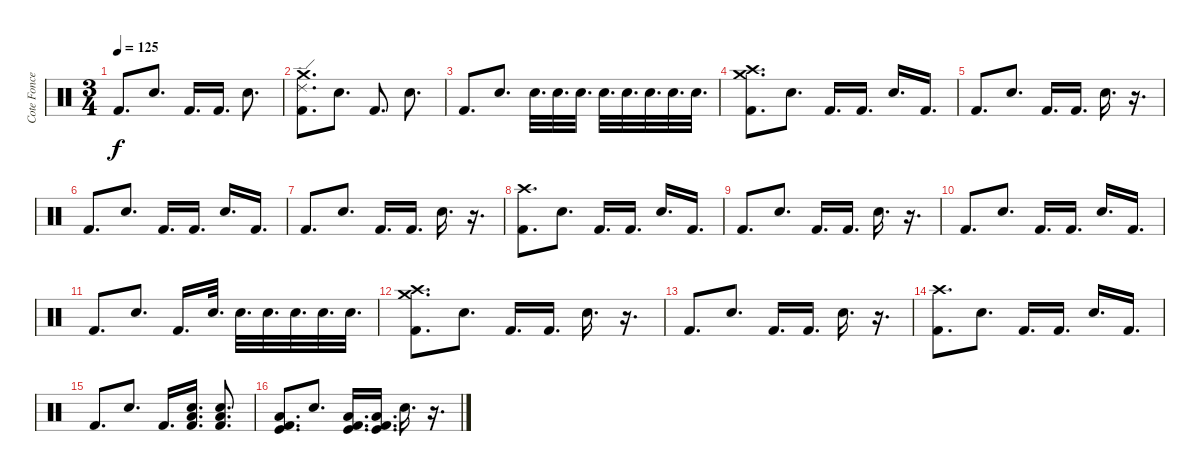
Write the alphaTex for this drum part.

\track ("Cote Foncea" "Cote Fonce") {instrument percussion}
\staff {score}
\articulation defaults
\ts (3 4)
\tempo 125
\clef neutral
\ks c "Kick (hit) 2".8{d dy f} "Snare (hit) 2".8{d} "Kick (hit) 2".16{d} "Kick (hit) 2".16{d} "Snare (hit) 2".8{d}
|
("Ride (edge) 2" "Crash medium (hit)" "Kick (hit) 2").8{d} "Snare (hit) 2".8{d} "Kick (hit) 2".8{d} "Snare (hit) 2".8{d} |
"Kick (hit) 2".8{d} "Snare (hit) 2".8{d} "Snare (hit) 2".32{d} "Snare (hit) 2".32{d} "Snare (hit) 2".32{d} "Snare (hit) 2".32{d} "Snare (hit) 2".32{d} "Snare (hit) 2".32{d} "Snare (hit) 2".32{d} "Snare (hit) 2".32{d} |
("Crash high (hit)" "Crash medium (hit)" "Kick (hit) 2").8{d} "Snare (hit) 2".8{d} "Kick (hit) 2".16{d} "Kick (hit) 2".16{d} "Snare (hit) 2".16{d} "Kick (hit) 2".16{d} |
"Kick (hit) 2".8{d} "Snare (hit) 2".8{d} "Kick (hit) 2".16{d} "Kick (hit) 2".16{d} "Snare (hit) 2".16{d} r.16{d} |
"Kick (hit) 2".8{d} "Snare (hit) 2".8{d} "Kick (hit) 2".16{d} "Kick (hit) 2".16{d} "Snare (hit) 2".16{d} "Kick (hit) 2".16{d} |
"Kick (hit) 2".8{d} "Snare (hit) 2".8{d} "Kick (hit) 2".16{d} "Kick (hit) 2".16{d} "Snare (hit) 2".16{d} r.16{d} |
("Crash high (hit)" "Kick (hit) 2").8{d} "Snare (hit) 2".8{d} "Kick (hit) 2".16{d} "Kick (hit) 2".16{d} "Snare (hit) 2".16{d} "Kick (hit) 2".16{d} |
"Kick (hit) 2".8{d} "Snare (hit) 2".8{d} "Kick (hit) 2".16{d} "Kick (hit) 2".16{d} "Snare (hit) 2".16{d} r.16{d} |
"Kick (hit) 2".8{d} "Snare (hit) 2".8{d} "Kick (hit) 2".16{d} "Kick (hit) 2".16{d} "Snare (hit) 2".16{d} "Kick (hit) 2".16{d} |
"Kick (hit) 2".8{d volume 16} "Snare (hit) 2".8{d volume 10} "Kick (hit) 2".16{d volume 16} "Snare (hit) 2".32{d} "Snare (hit) 2".32{d} "Snare (hit) 2".32{d} "Snare (hit) 2".32{d} "Snare (hit) 2".32{d} "Snare (hit) 2".32{d} |
("Crash high (hit)" "Crash medium (hit)" "Kick (hit) 2").8{d} "Snare (hit) 2".8{d} "Kick (hit) 2".16{d} "Kick (hit) 2".16{d} "Snare (hit) 2".16{d} r.16{d} |
"Kick (hit) 2".8{d} "Snare (hit) 2".8{d} "Kick (hit) 2".16{d} "Kick (hit) 2".16{d} "Snare (hit) 2".16{d} r.16{d} |
("Crash high (hit)" "Kick (hit) 2").8{d} "Snare (hit) 2".8{d} "Kick (hit) 2".16{d} "Kick (hit) 2".16{d} "Snare (hit) 2".16{d} "Kick (hit) 2".16{d} |
"Kick (hit) 2".8{d} "Snare (hit) 2".8{d} "Kick (hit) 2".16{d} ("Kick (hit) 2" "Snare (hit) 2" "Low Tom (hit)").16{d} ("Kick (hit) 2" "Snare (hit) 2" "Low Tom (hit)").8{d} |
("Low Tom (hit)" "Kick (hit) 2" "Kick (hit)").8{d} "Snare (hit) 2".8{d} ("Low Tom (hit)" "Kick (hit) 2" "Kick (hit)").16{d} ("Low Tom (hit)" "Kick (hit) 2" "Kick (hit)").16{d} "Snare (hit) 2".16{d} r.16{d}
